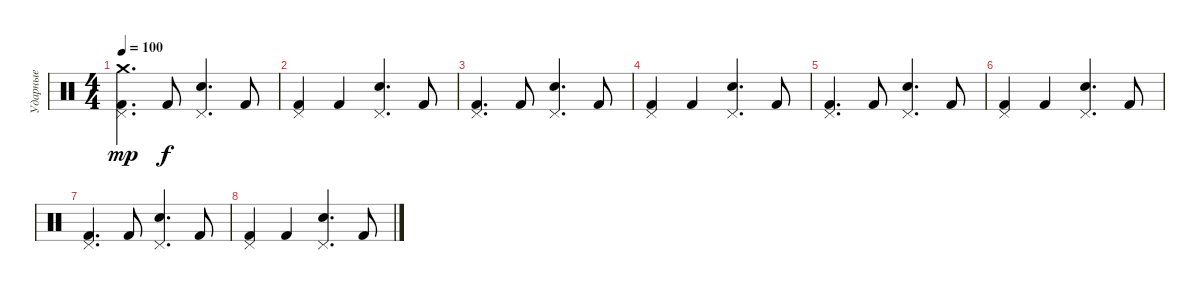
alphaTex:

\track ("Ударные" "Ударные") {instrument percussion}
\staff {score}
\articulation defaults
\ts (4 4)
\tempo 100
\clef neutral
\ks c
("Pedal Hi-Hat (hit)" "Kick (hit) 2" "Crash medium (hit)").4{d dy mp} "Kick (hit) 2".8{dy f} ("Pedal Hi-Hat (hit)" "Snare (hit) 2").4{d} "Kick (hit) 2".8 |
("Pedal Hi-Hat (hit)" "Kick (hit) 2").4 "Kick (hit) 2".4 ("Pedal Hi-Hat (hit)" "Snare (hit) 2").4{d} "Kick (hit) 2".8 |
("Pedal Hi-Hat (hit)" "Kick (hit) 2").4{d} "Kick (hit) 2".8 ("Pedal Hi-Hat (hit)" "Snare (hit) 2").4{d} "Kick (hit) 2".8 |
("Pedal Hi-Hat (hit)" "Kick (hit) 2").4 "Kick (hit) 2".4 ("Pedal Hi-Hat (hit)" "Snare (hit) 2").4{d} "Kick (hit) 2".8 |
("Pedal Hi-Hat (hit)" "Kick (hit) 2").4{d} "Kick (hit) 2".8 ("Pedal Hi-Hat (hit)" "Snare (hit) 2").4{d} "Kick (hit) 2".8 |
("Pedal Hi-Hat (hit)" "Kick (hit) 2").4 "Kick (hit) 2".4 ("Pedal Hi-Hat (hit)" "Snare (hit) 2").4{d} "Kick (hit) 2".8 |
("Pedal Hi-Hat (hit)" "Kick (hit) 2").4{d} "Kick (hit) 2".8 ("Pedal Hi-Hat (hit)" "Snare (hit) 2").4{d} "Kick (hit) 2".8 |
("Pedal Hi-Hat (hit)" "Kick (hit) 2").4 "Kick (hit) 2".4 ("Pedal Hi-Hat (hit)" "Snare (hit) 2").4{d} "Kick (hit) 2".8
